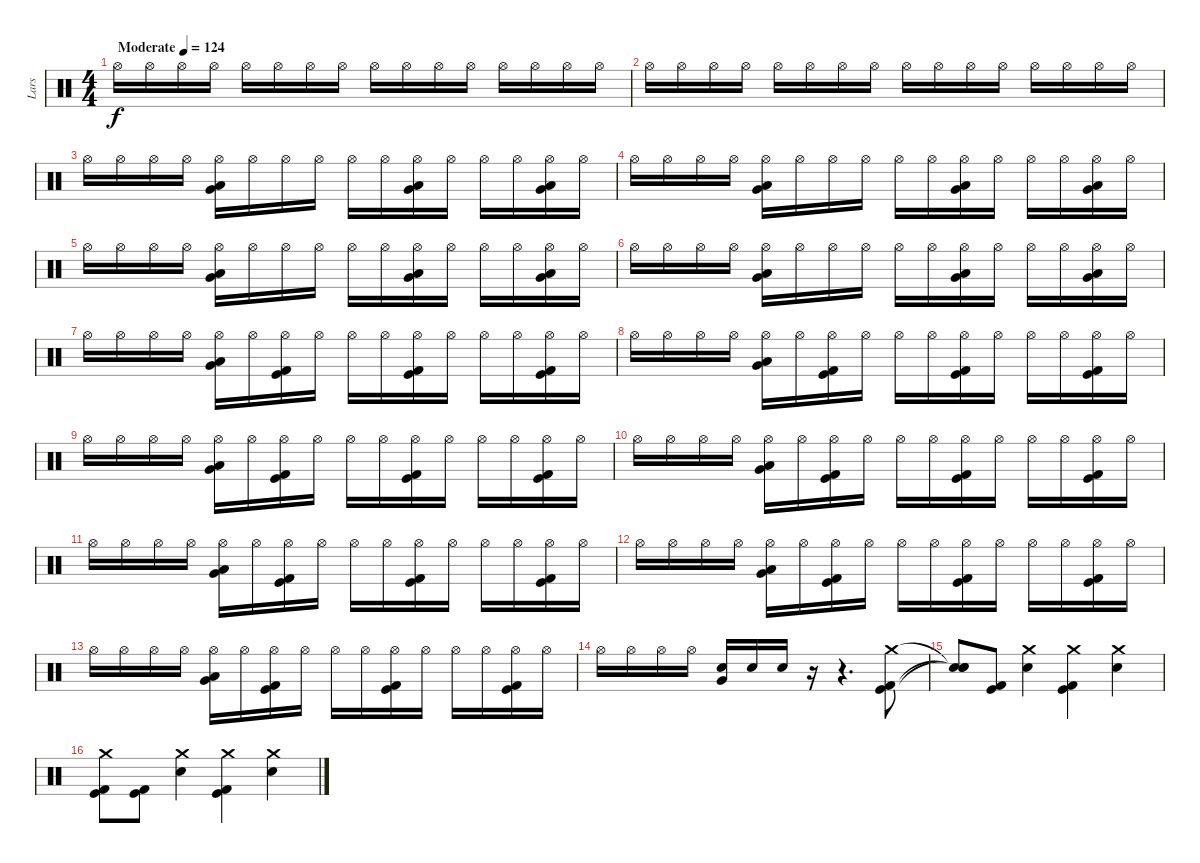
\track ("Lars" "Lars") {instrument percussion}
\staff {score}
\articulation defaults
\ts (4 4)
\tempo (124 "Moderate")
\clef neutral
\ks c "Hi-Hat (open)".16{dy f} "Hi-Hat (open)".16 "Hi-Hat (open)".16 "Hi-Hat (open)".16 "Hi-Hat (open)".16 "Hi-Hat (open)".16 "Hi-Hat (open)".16 "Hi-Hat (open)".16 "Hi-Hat (open)".16 "Hi-Hat (open)".16 "Hi-Hat (open)".16 "Hi-Hat (open)".16 "Hi-Hat (open)".16 "Hi-Hat (open)".16 "Hi-Hat (open)".16 "Hi-Hat (open)".16
|
"Hi-Hat (open)".16 "Hi-Hat (open)".16 "Hi-Hat (open)".16 "Hi-Hat (open)".16 "Hi-Hat (open)".16 "Hi-Hat (open)".16 "Hi-Hat (open)".16 "Hi-Hat (open)".16 "Hi-Hat (open)".16 "Hi-Hat (open)".16 "Hi-Hat (open)".16 "Hi-Hat (open)".16 "Hi-Hat (open)".16 "Hi-Hat (open)".16 "Hi-Hat (open)".16 "Hi-Hat (open)".16 |
"Hi-Hat (open)".16 "Hi-Hat (open)".16 "Hi-Hat (open)".16 "Hi-Hat (open)".16 ("Hi-Hat (open)" "Low Tom (hit)" "Very Low Tom (hit)").16 "Hi-Hat (open)".16 "Hi-Hat (open)".16 "Hi-Hat (open)".16 "Hi-Hat (open)".16 "Hi-Hat (open)".16 ("Hi-Hat (open)" "Low Tom (hit)" "Very Low Tom (hit)").16 "Hi-Hat (open)".16 "Hi-Hat (open)".16 "Hi-Hat (open)".16 ("Hi-Hat (open)" "Low Tom (hit)" "Very Low Tom (hit)").16 "Hi-Hat (open)".16 |
"Hi-Hat (open)".16 "Hi-Hat (open)".16 "Hi-Hat (open)".16 "Hi-Hat (open)".16 ("Hi-Hat (open)" "Low Tom (hit)" "Very Low Tom (hit)").16 "Hi-Hat (open)".16 "Hi-Hat (open)".16 "Hi-Hat (open)".16 "Hi-Hat (open)".16 "Hi-Hat (open)".16 ("Hi-Hat (open)" "Low Tom (hit)" "Very Low Tom (hit)").16 "Hi-Hat (open)".16 "Hi-Hat (open)".16 "Hi-Hat (open)".16 ("Hi-Hat (open)" "Low Tom (hit)" "Very Low Tom (hit)").16 "Hi-Hat (open)".16 |
"Hi-Hat (open)".16 "Hi-Hat (open)".16 "Hi-Hat (open)".16 "Hi-Hat (open)".16 ("Hi-Hat (open)" "Low Tom (hit)" "Very Low Tom (hit)").16 "Hi-Hat (open)".16 "Hi-Hat (open)".16 "Hi-Hat (open)".16 "Hi-Hat (open)".16 "Hi-Hat (open)".16 ("Hi-Hat (open)" "Low Tom (hit)" "Very Low Tom (hit)").16 "Hi-Hat (open)".16 "Hi-Hat (open)".16 "Hi-Hat (open)".16 ("Hi-Hat (open)" "Low Tom (hit)" "Very Low Tom (hit)").16 "Hi-Hat (open)".16 |
"Hi-Hat (open)".16 "Hi-Hat (open)".16 "Hi-Hat (open)".16 "Hi-Hat (open)".16 ("Hi-Hat (open)" "Low Tom (hit)" "Very Low Tom (hit)").16 "Hi-Hat (open)".16 "Hi-Hat (open)".16 "Hi-Hat (open)".16 "Hi-Hat (open)".16 "Hi-Hat (open)".16 ("Hi-Hat (open)" "Low Tom (hit)" "Very Low Tom (hit)").16 "Hi-Hat (open)".16 "Hi-Hat (open)".16 "Hi-Hat (open)".16 ("Hi-Hat (open)" "Low Tom (hit)" "Very Low Tom (hit)").16 "Hi-Hat (open)".16 |
"Hi-Hat (open)".16 "Hi-Hat (open)".16 "Hi-Hat (open)".16 "Hi-Hat (open)".16 ("Hi-Hat (open)" "Low Tom (hit)" "Very Low Tom (hit)").16 "Hi-Hat (open)".16 ("Hi-Hat (open)" "Kick (hit)" "Kick (hit) 2").16 "Hi-Hat (open)".16 "Hi-Hat (open)".16 "Hi-Hat (open)".16 ("Hi-Hat (open)" "Kick (hit)" "Kick (hit) 2").16 "Hi-Hat (open)".16 "Hi-Hat (open)".16 "Hi-Hat (open)".16 ("Hi-Hat (open)" "Kick (hit)" "Kick (hit) 2").16 "Hi-Hat (open)".16 |
"Hi-Hat (open)".16 "Hi-Hat (open)".16 "Hi-Hat (open)".16 "Hi-Hat (open)".16 ("Hi-Hat (open)" "Low Tom (hit)" "Very Low Tom (hit)").16 "Hi-Hat (open)".16 ("Hi-Hat (open)" "Kick (hit)" "Kick (hit) 2").16 "Hi-Hat (open)".16 "Hi-Hat (open)".16 "Hi-Hat (open)".16 ("Hi-Hat (open)" "Kick (hit)" "Kick (hit) 2").16 "Hi-Hat (open)".16 "Hi-Hat (open)".16 "Hi-Hat (open)".16 ("Hi-Hat (open)" "Kick (hit)" "Kick (hit) 2").16 "Hi-Hat (open)".16 |
"Hi-Hat (open)".16 "Hi-Hat (open)".16 "Hi-Hat (open)".16 "Hi-Hat (open)".16 ("Hi-Hat (open)" "Low Tom (hit)" "Very Low Tom (hit)").16 "Hi-Hat (open)".16 ("Hi-Hat (open)" "Kick (hit)" "Kick (hit) 2").16 "Hi-Hat (open)".16 "Hi-Hat (open)".16 "Hi-Hat (open)".16 ("Hi-Hat (open)" "Kick (hit)" "Kick (hit) 2").16 "Hi-Hat (open)".16 "Hi-Hat (open)".16 "Hi-Hat (open)".16 ("Hi-Hat (open)" "Kick (hit)" "Kick (hit) 2").16 "Hi-Hat (open)".16 |
"Hi-Hat (open)".16 "Hi-Hat (open)".16 "Hi-Hat (open)".16 "Hi-Hat (open)".16 ("Hi-Hat (open)" "Low Tom (hit)" "Very Low Tom (hit)").16 "Hi-Hat (open)".16 ("Hi-Hat (open)" "Kick (hit)" "Kick (hit) 2").16 "Hi-Hat (open)".16 "Hi-Hat (open)".16 "Hi-Hat (open)".16 ("Hi-Hat (open)" "Kick (hit)" "Kick (hit) 2").16 "Hi-Hat (open)".16 "Hi-Hat (open)".16 "Hi-Hat (open)".16 ("Hi-Hat (open)" "Kick (hit)" "Kick (hit) 2").16 "Hi-Hat (open)".16 |
"Hi-Hat (open)".16 "Hi-Hat (open)".16 "Hi-Hat (open)".16 "Hi-Hat (open)".16 ("Hi-Hat (open)" "Low Tom (hit)" "Very Low Tom (hit)").16 "Hi-Hat (open)".16 ("Hi-Hat (open)" "Kick (hit)" "Kick (hit) 2").16 "Hi-Hat (open)".16 "Hi-Hat (open)".16 "Hi-Hat (open)".16 ("Hi-Hat (open)" "Kick (hit)" "Kick (hit) 2").16 "Hi-Hat (open)".16 "Hi-Hat (open)".16 "Hi-Hat (open)".16 ("Hi-Hat (open)" "Kick (hit)" "Kick (hit) 2").16 "Hi-Hat (open)".16 |
"Hi-Hat (open)".16 "Hi-Hat (open)".16 "Hi-Hat (open)".16 "Hi-Hat (open)".16 ("Hi-Hat (open)" "Low Tom (hit)" "Very Low Tom (hit)").16 "Hi-Hat (open)".16 ("Hi-Hat (open)" "Kick (hit)" "Kick (hit) 2").16 "Hi-Hat (open)".16 "Hi-Hat (open)".16 "Hi-Hat (open)".16 ("Hi-Hat (open)" "Kick (hit)" "Kick (hit) 2").16 "Hi-Hat (open)".16 "Hi-Hat (open)".16 "Hi-Hat (open)".16 ("Hi-Hat (open)" "Kick (hit)" "Kick (hit) 2").16 "Hi-Hat (open)".16 |
"Hi-Hat (open)".16 "Hi-Hat (open)".16 "Hi-Hat (open)".16 "Hi-Hat (open)".16 ("Hi-Hat (open)" "Low Tom (hit)" "Very Low Tom (hit)").16 "Hi-Hat (open)".16 ("Hi-Hat (open)" "Kick (hit)" "Kick (hit) 2").16 "Hi-Hat (open)".16 "Hi-Hat (open)".16 "Hi-Hat (open)".16 ("Hi-Hat (open)" "Kick (hit)" "Kick (hit) 2").16 "Hi-Hat (open)".16 "Hi-Hat (open)".16 "Hi-Hat (open)".16 ("Hi-Hat (open)" "Kick (hit)" "Kick (hit) 2").16 "Hi-Hat (open)".16 |
"Hi-Hat (open)".16 "Hi-Hat (open)".16 "Hi-Hat (open)".16 "Hi-Hat (open)".16 ("Electric Snare (hit)" "Very Low Tom (hit)").16 "Electric Snare (hit)".16 "Electric Snare (hit)".16 r.16 r.4{d} ("Crash medium (hit)" "Kick (hit)" "Kick (hit) 2").8 |
("Snare (hit)"{t} "Snare (hit)"{t} "Snare (hit)"{t}).8 ("Kick (hit)" "Kick (hit) 2").8 ("Crash medium (hit)" "Electric Snare (hit)").4 ("Crash medium (hit)" "Kick (hit)" "Kick (hit) 2").4 ("Crash medium (hit)" "Electric Snare (hit)").4 |
("Crash medium (hit)" "Kick (hit)" "Kick (hit) 2").8 ("Kick (hit)" "Kick (hit) 2").8 ("Crash medium (hit)" "Electric Snare (hit)").4 ("Crash medium (hit)" "Kick (hit)" "Kick (hit) 2").4 ("Crash medium (hit)" "Electric Snare (hit)").4
